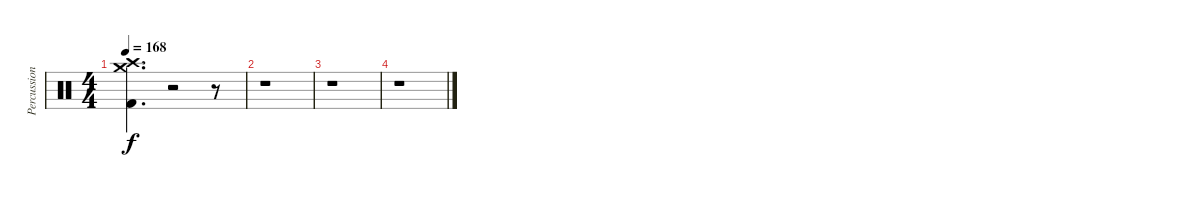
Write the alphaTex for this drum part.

\track ("Percussion" "Percussion") {instrument percussion}
\staff {score}
\articulation defaults
\ts (4 4)
\tempo 168
\clef neutral
\ks c
("Crash medium (hit)" "Crash high (hit)" "Kick (hit) 2").4{d dy f} r.2 r.8 |
r.1 |
r.1 |
r.1
